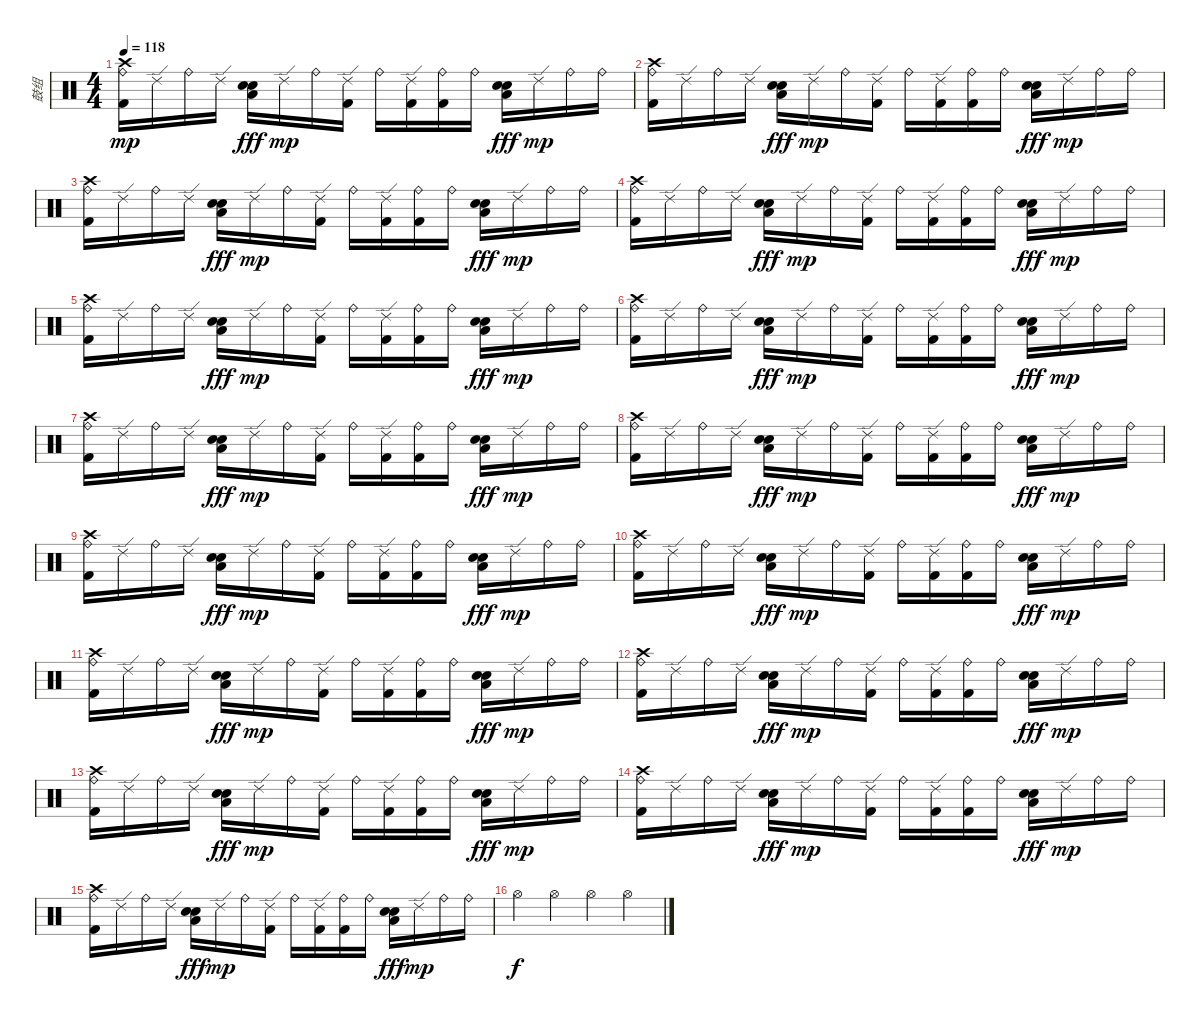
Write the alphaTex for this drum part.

\track ("鼓组" "鼓组") {instrument percussion}
\staff {score}
\articulation defaults
\ts (4 4)
\tempo 118
\clef neutral
\ks c
("Ride (bell)" "Crash high (hit)" "Kick (hit) 2").16{dy mp} "Ride (edge) 2".16 "Ride (bell)".16 "Ride (edge) 2".16 ("Low Tom (hit)" "Snare (hit) 2" "Electric Snare (hit)").16{dy fff} "Ride (edge) 2".16{dy mp} "Ride (bell)".16 ("Ride (edge) 2" "Kick (hit) 2").16 "Ride (bell)".16 ("Ride (edge) 2" "Kick (hit) 2").16 ("Ride (bell)" "Kick (hit) 2").16 "Ride (bell)".16 ("Low Tom (hit)" "Electric Snare (hit)" "Snare (hit) 2").16{dy fff} "Ride (edge) 2".16{dy mp} "Ride (bell)".16 "Ride (bell)".16 |
("Ride (bell)" "Crash high (hit)" "Kick (hit) 2").16 "Ride (edge) 2".16 "Ride (bell)".16 "Ride (edge) 2".16 ("Low Tom (hit)" "Snare (hit) 2" "Electric Snare (hit)").16{dy fff} "Ride (edge) 2".16{dy mp} "Ride (bell)".16 ("Ride (edge) 2" "Kick (hit) 2").16 "Ride (bell)".16 ("Ride (edge) 2" "Kick (hit) 2").16 ("Ride (bell)" "Kick (hit) 2").16 "Ride (bell)".16 ("Low Tom (hit)" "Electric Snare (hit)" "Snare (hit) 2").16{dy fff} "Ride (edge) 2".16{dy mp} "Ride (bell)".16 "Ride (bell)".16 |
("Ride (bell)" "Crash high (hit)" "Kick (hit) 2").16 "Ride (edge) 2".16 "Ride (bell)".16 "Ride (edge) 2".16 ("Low Tom (hit)" "Snare (hit) 2" "Electric Snare (hit)").16{dy fff} "Ride (edge) 2".16{dy mp} "Ride (bell)".16 ("Ride (edge) 2" "Kick (hit) 2").16 "Ride (bell)".16 ("Ride (edge) 2" "Kick (hit) 2").16 ("Ride (bell)" "Kick (hit) 2").16 "Ride (bell)".16 ("Low Tom (hit)" "Electric Snare (hit)" "Snare (hit) 2").16{dy fff} "Ride (edge) 2".16{dy mp} "Ride (bell)".16 "Ride (bell)".16 |
("Ride (bell)" "Crash high (hit)" "Kick (hit) 2").16 "Ride (edge) 2".16 "Ride (bell)".16 "Ride (edge) 2".16 ("Low Tom (hit)" "Snare (hit) 2" "Electric Snare (hit)").16{dy fff} "Ride (edge) 2".16{dy mp} "Ride (bell)".16 ("Ride (edge) 2" "Kick (hit) 2").16 "Ride (bell)".16 ("Ride (edge) 2" "Kick (hit) 2").16 ("Ride (bell)" "Kick (hit) 2").16 "Ride (bell)".16 ("Low Tom (hit)" "Electric Snare (hit)" "Snare (hit) 2").16{dy fff} "Ride (edge) 2".16{dy mp} "Ride (bell)".16 "Ride (bell)".16 |
("Ride (bell)" "Crash high (hit)" "Kick (hit) 2").16 "Ride (edge) 2".16 "Ride (bell)".16 "Ride (edge) 2".16 ("Low Tom (hit)" "Snare (hit) 2" "Electric Snare (hit)").16{dy fff} "Ride (edge) 2".16{dy mp} "Ride (bell)".16 ("Ride (edge) 2" "Kick (hit) 2").16 "Ride (bell)".16 ("Ride (edge) 2" "Kick (hit) 2").16 ("Ride (bell)" "Kick (hit) 2").16 "Ride (bell)".16 ("Low Tom (hit)" "Electric Snare (hit)" "Snare (hit) 2").16{dy fff} "Ride (edge) 2".16{dy mp} "Ride (bell)".16 "Ride (bell)".16 |
("Ride (bell)" "Crash high (hit)" "Kick (hit) 2").16 "Ride (edge) 2".16 "Ride (bell)".16 "Ride (edge) 2".16 ("Low Tom (hit)" "Snare (hit) 2" "Electric Snare (hit)").16{dy fff} "Ride (edge) 2".16{dy mp} "Ride (bell)".16 ("Ride (edge) 2" "Kick (hit) 2").16 "Ride (bell)".16 ("Ride (edge) 2" "Kick (hit) 2").16 ("Ride (bell)" "Kick (hit) 2").16 "Ride (bell)".16 ("Low Tom (hit)" "Electric Snare (hit)" "Snare (hit) 2").16{dy fff} "Ride (edge) 2".16{dy mp} "Ride (bell)".16 "Ride (bell)".16 |
("Ride (bell)" "Crash high (hit)" "Kick (hit) 2").16 "Ride (edge) 2".16 "Ride (bell)".16 "Ride (edge) 2".16 ("Low Tom (hit)" "Snare (hit) 2" "Electric Snare (hit)").16{dy fff} "Ride (edge) 2".16{dy mp} "Ride (bell)".16 ("Ride (edge) 2" "Kick (hit) 2").16 "Ride (bell)".16 ("Ride (edge) 2" "Kick (hit) 2").16 ("Ride (bell)" "Kick (hit) 2").16 "Ride (bell)".16 ("Low Tom (hit)" "Electric Snare (hit)" "Snare (hit) 2").16{dy fff} "Ride (edge) 2".16{dy mp} "Ride (bell)".16 "Ride (bell)".16 |
("Ride (bell)" "Crash high (hit)" "Kick (hit) 2").16 "Ride (edge) 2".16 "Ride (bell)".16 "Ride (edge) 2".16 ("Low Tom (hit)" "Snare (hit) 2" "Electric Snare (hit)").16{dy fff} "Ride (edge) 2".16{dy mp} "Ride (bell)".16 ("Ride (edge) 2" "Kick (hit) 2").16 "Ride (bell)".16 ("Ride (edge) 2" "Kick (hit) 2").16 ("Ride (bell)" "Kick (hit) 2").16 "Ride (bell)".16 ("Low Tom (hit)" "Electric Snare (hit)" "Snare (hit) 2").16{dy fff} "Ride (edge) 2".16{dy mp} "Ride (bell)".16 "Ride (bell)".16 |
("Ride (bell)" "Crash high (hit)" "Kick (hit) 2").16 "Ride (edge) 2".16 "Ride (bell)".16 "Ride (edge) 2".16 ("Low Tom (hit)" "Snare (hit) 2" "Electric Snare (hit)").16{dy fff} "Ride (edge) 2".16{dy mp} "Ride (bell)".16 ("Ride (edge) 2" "Kick (hit) 2").16 "Ride (bell)".16 ("Ride (edge) 2" "Kick (hit) 2").16 ("Ride (bell)" "Kick (hit) 2").16 "Ride (bell)".16 ("Low Tom (hit)" "Electric Snare (hit)" "Snare (hit) 2").16{dy fff} "Ride (edge) 2".16{dy mp} "Ride (bell)".16 "Ride (bell)".16 |
("Ride (bell)" "Crash high (hit)" "Kick (hit) 2").16 "Ride (edge) 2".16 "Ride (bell)".16 "Ride (edge) 2".16 ("Low Tom (hit)" "Snare (hit) 2" "Electric Snare (hit)").16{dy fff} "Ride (edge) 2".16{dy mp} "Ride (bell)".16 ("Ride (edge) 2" "Kick (hit) 2").16 "Ride (bell)".16 ("Ride (edge) 2" "Kick (hit) 2").16 ("Ride (bell)" "Kick (hit) 2").16 "Ride (bell)".16 ("Low Tom (hit)" "Electric Snare (hit)" "Snare (hit) 2").16{dy fff} "Ride (edge) 2".16{dy mp} "Ride (bell)".16 "Ride (bell)".16 |
("Ride (bell)" "Crash high (hit)" "Kick (hit) 2").16 "Ride (edge) 2".16 "Ride (bell)".16 "Ride (edge) 2".16 ("Low Tom (hit)" "Snare (hit) 2" "Electric Snare (hit)").16{dy fff} "Ride (edge) 2".16{dy mp} "Ride (bell)".16 ("Ride (edge) 2" "Kick (hit) 2").16 "Ride (bell)".16 ("Ride (edge) 2" "Kick (hit) 2").16 ("Ride (bell)" "Kick (hit) 2").16 "Ride (bell)".16 ("Low Tom (hit)" "Electric Snare (hit)" "Snare (hit) 2").16{dy fff} "Ride (edge) 2".16{dy mp} "Ride (bell)".16 "Ride (bell)".16 |
("Ride (bell)" "Crash high (hit)" "Kick (hit) 2").16 "Ride (edge) 2".16 "Ride (bell)".16 "Ride (edge) 2".16 ("Low Tom (hit)" "Snare (hit) 2" "Electric Snare (hit)").16{dy fff} "Ride (edge) 2".16{dy mp} "Ride (bell)".16 ("Ride (edge) 2" "Kick (hit) 2").16 "Ride (bell)".16 ("Ride (edge) 2" "Kick (hit) 2").16 ("Ride (bell)" "Kick (hit) 2").16 "Ride (bell)".16 ("Low Tom (hit)" "Electric Snare (hit)" "Snare (hit) 2").16{dy fff} "Ride (edge) 2".16{dy mp} "Ride (bell)".16 "Ride (bell)".16 |
("Ride (bell)" "Crash high (hit)" "Kick (hit) 2").16 "Ride (edge) 2".16 "Ride (bell)".16 "Ride (edge) 2".16 ("Low Tom (hit)" "Snare (hit) 2" "Electric Snare (hit)").16{dy fff} "Ride (edge) 2".16{dy mp} "Ride (bell)".16 ("Ride (edge) 2" "Kick (hit) 2").16 "Ride (bell)".16 ("Ride (edge) 2" "Kick (hit) 2").16 ("Ride (bell)" "Kick (hit) 2").16 "Ride (bell)".16 ("Low Tom (hit)" "Electric Snare (hit)" "Snare (hit) 2").16{dy fff} "Ride (edge) 2".16{dy mp} "Ride (bell)".16 "Ride (bell)".16 |
("Ride (bell)" "Crash high (hit)" "Kick (hit) 2").16 "Ride (edge) 2".16 "Ride (bell)".16 "Ride (edge) 2".16 ("Low Tom (hit)" "Snare (hit) 2" "Electric Snare (hit)").16{dy fff} "Ride (edge) 2".16{dy mp} "Ride (bell)".16 ("Ride (edge) 2" "Kick (hit) 2").16 "Ride (bell)".16 ("Ride (edge) 2" "Kick (hit) 2").16 ("Ride (bell)" "Kick (hit) 2").16 "Ride (bell)".16 ("Low Tom (hit)" "Electric Snare (hit)" "Snare (hit) 2").16{dy fff} "Ride (edge) 2".16{dy mp} "Ride (bell)".16 "Ride (bell)".16 |
("Ride (bell)" "Crash high (hit)" "Kick (hit) 2").16 "Ride (edge) 2".16 "Ride (bell)".16 "Ride (edge) 2".16 ("Low Tom (hit)" "Snare (hit) 2" "Electric Snare (hit)").16{dy fff} "Ride (edge) 2".16{dy mp} "Ride (bell)".16 ("Ride (edge) 2" "Kick (hit) 2").16 "Ride (bell)".16 ("Ride (edge) 2" "Kick (hit) 2").16 ("Ride (bell)" "Kick (hit) 2").16 "Ride (bell)".16 ("Low Tom (hit)" "Electric Snare (hit)" "Snare (hit) 2").16{dy fff} "Ride (edge) 2".16{dy mp} "Ride (bell)".16 "Ride (bell)".16 |
"Hi-Hat (open)".4{dy f} "Hi-Hat (open)".4 "Hi-Hat (open)".4 "Hi-Hat (open)".4
